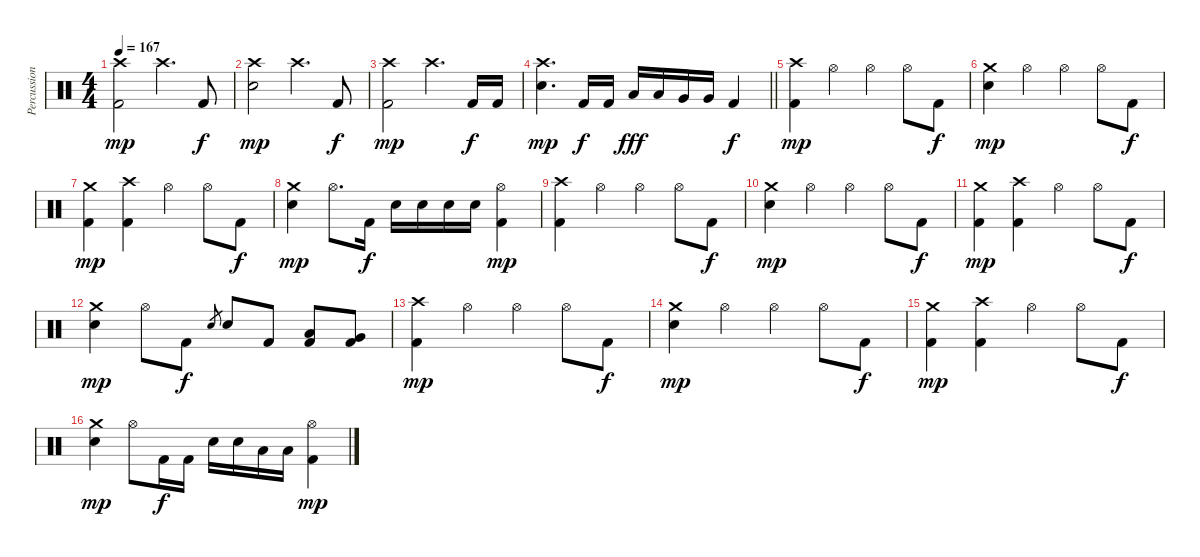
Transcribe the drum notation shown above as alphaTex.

\track ("Percussion" "Percussion") {instrument percussion}
\staff {score}
\articulation defaults
\ts (4 4)
\tempo 167
\clef neutral
\ks c
("Crash high (hit)" "Kick (hit) 2").2{dy mp} "Crash high (hit)".4{d} "Kick (hit) 2".8{dy f} |
("Crash high (hit)" "Snare (hit) 2").2{dy mp} "Crash high (hit)".4{d} "Kick (hit) 2".8{dy f} |
("Crash high (hit)" "Kick (hit) 2").2{dy mp} "Crash high (hit)".4{d} "Kick (hit) 2".16{dy f} "Kick (hit) 2".16 |
\barLineRight lightlight
("Crash high (hit)" "Snare (hit) 2").4{d dy mp} "Kick (hit) 2".16{dy f} "Kick (hit) 2".16 "Low Tom (hit)".16{dy fff} "Low Tom (hit)".16 "Very Low Tom (hit)".16 "Very Low Tom (hit)".16 "Kick (hit) 2".4{dy f} |
("Crash high (hit)" "Kick (hit) 2").4{dy mp} "Hi-Hat (open)".4 "Hi-Hat (open)".4 "Hi-Hat (open)".8 "Kick (hit) 2".8{dy f} |
("Crash medium (hit)" "Snare (hit) 2").4{dy mp} "Hi-Hat (open)".4 "Hi-Hat (open)".4 "Hi-Hat (open)".8 "Kick (hit) 2".8{dy f} |
("Crash medium (hit)" "Kick (hit) 2").4{dy mp} ("Crash high (hit)" "Kick (hit) 2").4 "Hi-Hat (open)".4 "Hi-Hat (open)".8 "Kick (hit) 2".8{dy f} |
("Crash medium (hit)" "Snare (hit) 2").4{dy mp} "Hi-Hat (open)".8{d} "Kick (hit) 2".16{dy f} "Snare (hit) 2".16 "Snare (hit) 2".16 "Snare (hit) 2".16 "Snare (hit) 2".16 ("Hi-Hat (open)" "Kick (hit) 2").4{dy mp} |
("Crash high (hit)" "Kick (hit) 2").4 "Hi-Hat (open)".4 "Hi-Hat (open)".4 "Hi-Hat (open)".8 "Kick (hit) 2".8{dy f} |
("Crash medium (hit)" "Snare (hit) 2").4{dy mp} "Hi-Hat (open)".4 "Hi-Hat (open)".4 "Hi-Hat (open)".8 "Kick (hit) 2".8{dy f} |
("Crash medium (hit)" "Kick (hit) 2").4{dy mp} ("Crash high (hit)" "Kick (hit) 2").4 "Hi-Hat (open)".4 "Hi-Hat (open)".8 "Kick (hit) 2".8{dy f} |
("Crash medium (hit)" "Snare (hit) 2").4{dy mp} "Hi-Hat (open)".8 "Kick (hit) 2".8{dy f} "Snare (hit) 2".8{gr} "Snare (hit) 2".8 "Kick (hit) 2".8 ("Low Tom (hit)" "Kick (hit) 2").8 ("Very Low Tom (hit)" "Kick (hit) 2").8 |
("Crash high (hit)" "Kick (hit) 2").4{dy mp} "Hi-Hat (open)".4 "Hi-Hat (open)".4 "Hi-Hat (open)".8 "Kick (hit) 2".8{dy f} |
("Crash medium (hit)" "Snare (hit) 2").4{dy mp} "Hi-Hat (open)".4 "Hi-Hat (open)".4 "Hi-Hat (open)".8 "Kick (hit) 2".8{dy f} |
("Crash medium (hit)" "Kick (hit) 2").4{dy mp} ("Crash high (hit)" "Kick (hit) 2").4 "Hi-Hat (open)".4 "Hi-Hat (open)".8 "Kick (hit) 2".8{dy f} |
("Crash medium (hit)" "Snare (hit) 2").4{dy mp} "Hi-Hat (open)".8 "Kick (hit) 2".16{dy f} "Kick (hit) 2".16 "Snare (hit) 2".16 "Snare (hit) 2".16 "Low Tom (hit)".16 "Low Tom (hit)".16 ("Hi-Hat (open)" "Kick (hit) 2").4{dy mp}
